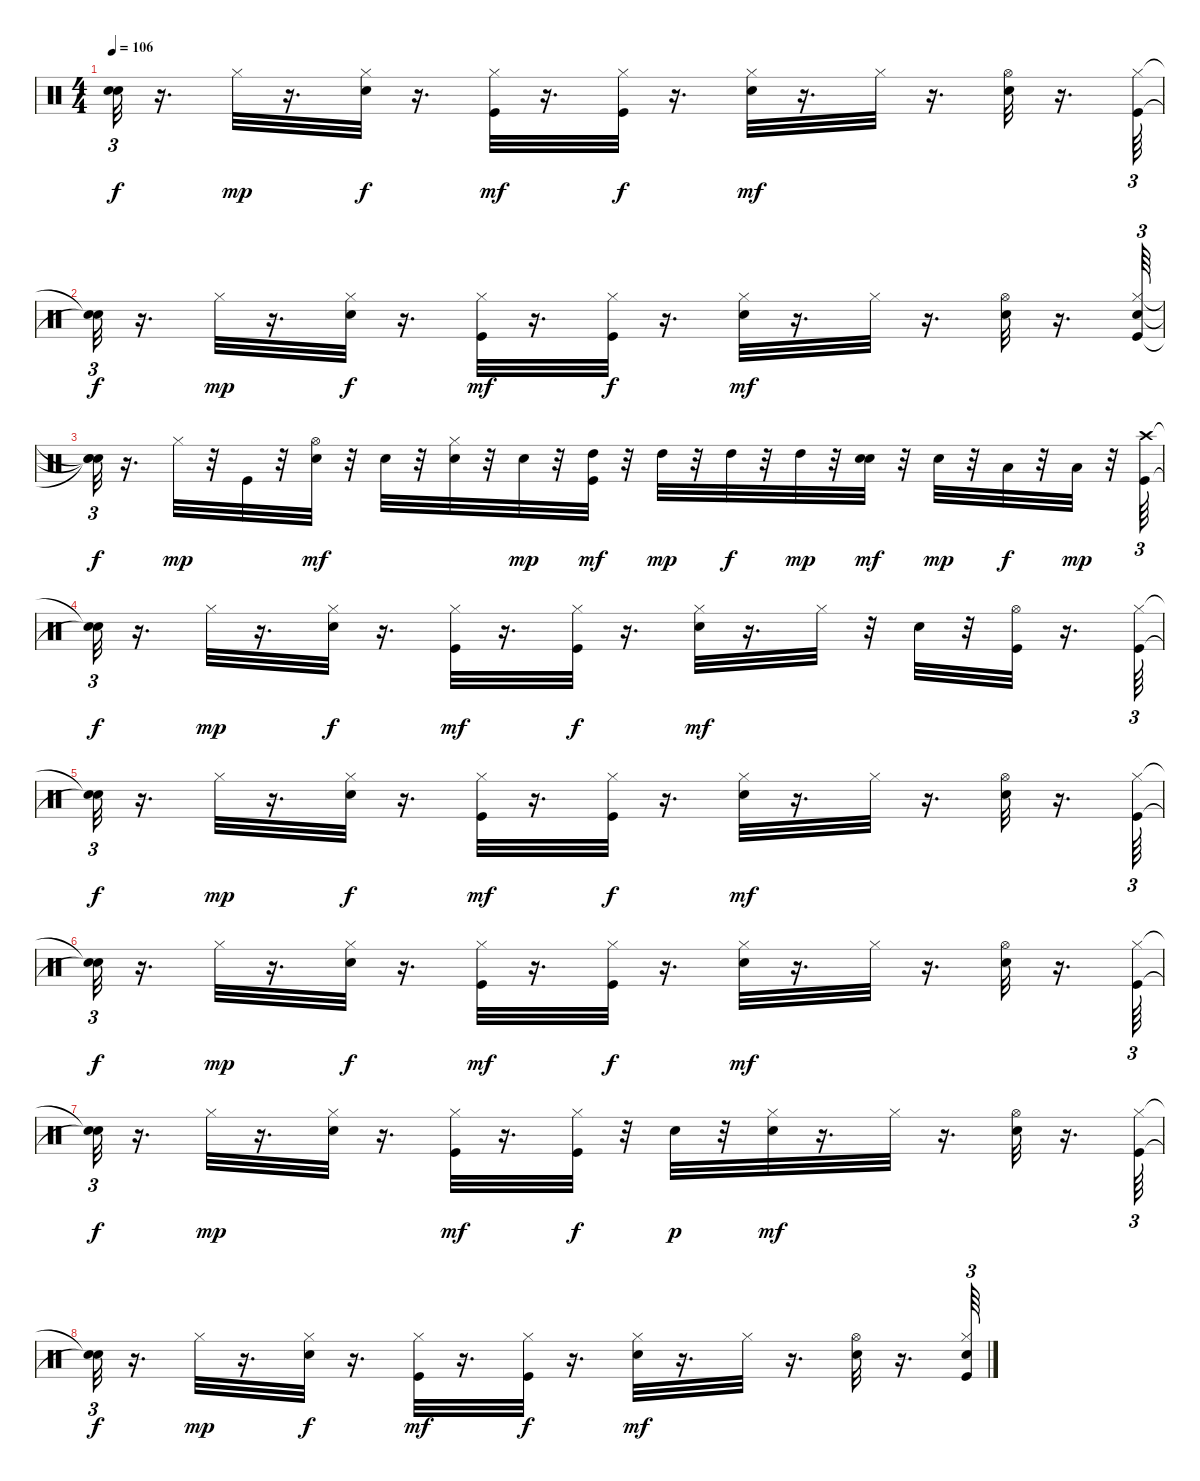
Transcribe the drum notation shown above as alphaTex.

\track "" {instrument percussion}
\staff {score}
\articulation defaults
\ts (4 4)
\tempo 106
\clef neutral
\ks c
("Snare (hit)"{t} "Snare (hit)"{t}).32{tu (3 2) dy f} r.16{d} "Hi-Hat (closed)".32{dy mp} r.16{d} ("Snare (hit) 2" "Hi-Hat (closed)").32{dy f} r.16{d} ("Kick (hit)" "Hi-Hat (closed)").32{dy mf} r.16{d} ("Kick (hit)" "Hi-Hat (closed)").32{dy f} r.16{d} ("Snare (hit) 2" "Hi-Hat (closed)").32{dy mf} r.16{d} "Hi-Hat (closed)".32 r.16{d} ("Snare (hit) 2" "Hi-Hat (open)").32 r.16{d} ("Kick (hit)" "Hi-Hat (closed)").64{tu (3 2)} |
("Snare (hit)"{t} "Snare (hit)"{t}).32{tu (3 2) dy f} r.16{d} "Hi-Hat (closed)".32{dy mp} r.16{d} ("Snare (hit) 2" "Hi-Hat (closed)").32{dy f} r.16{d} ("Kick (hit)" "Hi-Hat (closed)").32{dy mf} r.16{d} ("Kick (hit)" "Hi-Hat (closed)").32{dy f} r.16{d} ("Snare (hit) 2" "Hi-Hat (closed)").32{dy mf} r.16{d} "Hi-Hat (closed)".32 r.16{d} ("Snare (hit) 2" "Hi-Hat (open)").32 r.16{d} ("Kick (hit)" "Snare (hit) 2" "Hi-Hat (closed)").64{tu (3 2)} |
("Snare (hit)"{t} "Snare (hit)"{t} "Snare (hit)"{t}).32{tu (3 2) dy f} r.16{d} "Hi-Hat (closed)".32{dy mp} r.32 "Kick (hit)".32 r.32 ("Snare (hit) 2" "Hi-Hat (open)").32{dy mf} r.32 "Snare (hit) 2".32 r.32 ("Snare (hit) 2" "Hi-Hat (closed)").32 r.32 "Snare (hit) 2".32{dy mp} r.32 ("Kick (hit)" "High Tom (hit)").32{dy mf} r.32 "High Tom (hit)".32{dy mp} r.32 "High Tom (hit)".32{dy f} r.32 "High Tom (hit)".32{dy mp} r.32 ("Snare (hit) 2" "Snare (hit) 2").32{dy mf} r.32 "Snare (hit) 2".32{dy mp} r.32 "Low Tom (hit)".32{dy f} r.32 "Low Tom (hit)".32{dy mp} r.32 ("Kick (hit)" "Crash high (hit)").64{tu (3 2)} |
("Snare (hit)"{t} "Snare (hit)"{t}).32{tu (3 2) dy f} r.16{d} "Hi-Hat (closed)".32{dy mp} r.16{d} ("Snare (hit) 2" "Hi-Hat (closed)").32{dy f} r.16{d} ("Kick (hit)" "Hi-Hat (closed)").32{dy mf} r.16{d} ("Kick (hit)" "Hi-Hat (closed)").32{dy f} r.16{d} ("Snare (hit) 2" "Hi-Hat (closed)").32{dy mf} r.16{d} "Hi-Hat (closed)".32 r.32 "Snare (hit) 2".32 r.32 ("Kick (hit)" "Hi-Hat (open)").32 r.16{d} ("Kick (hit)" "Hi-Hat (closed)").64{tu (3 2)} |
("Snare (hit)"{t} "Snare (hit)"{t}).32{tu (3 2) dy f} r.16{d} "Hi-Hat (closed)".32{dy mp} r.16{d} ("Snare (hit) 2" "Hi-Hat (closed)").32{dy f} r.16{d} ("Kick (hit)" "Hi-Hat (closed)").32{dy mf} r.16{d} ("Kick (hit)" "Hi-Hat (closed)").32{dy f} r.16{d} ("Snare (hit) 2" "Hi-Hat (closed)").32{dy mf} r.16{d} "Hi-Hat (closed)".32 r.16{d} ("Snare (hit) 2" "Hi-Hat (open)").32 r.16{d} ("Kick (hit)" "Hi-Hat (closed)").64{tu (3 2)} |
("Snare (hit)"{t} "Snare (hit)"{t}).32{tu (3 2) dy f} r.16{d} "Hi-Hat (closed)".32{dy mp} r.16{d} ("Snare (hit) 2" "Hi-Hat (closed)").32{dy f} r.16{d} ("Kick (hit)" "Hi-Hat (closed)").32{dy mf} r.16{d} ("Kick (hit)" "Hi-Hat (closed)").32{dy f} r.16{d} ("Snare (hit) 2" "Hi-Hat (closed)").32{dy mf} r.16{d} "Hi-Hat (closed)".32 r.16{d} ("Snare (hit) 2" "Hi-Hat (open)").32 r.16{d} ("Kick (hit)" "Hi-Hat (closed)").64{tu (3 2)} |
("Snare (hit)"{t} "Snare (hit)"{t}).32{tu (3 2) dy f} r.16{d} "Hi-Hat (closed)".32{dy mp} r.16{d} ("Snare (hit) 2" "Hi-Hat (closed)").32 r.16{d} ("Kick (hit)" "Hi-Hat (closed)").32{dy mf} r.16{d} ("Kick (hit)" "Hi-Hat (closed)").32{dy f} r.32 "Snare (hit) 2".32{dy p} r.32 ("Snare (hit) 2" "Hi-Hat (closed)").32{dy mf} r.16{d} "Hi-Hat (closed)".32 r.16{d} ("Snare (hit) 2" "Hi-Hat (open)").32 r.16{d} ("Kick (hit)" "Hi-Hat (closed)").64{tu (3 2)} |
("Snare (hit)"{t} "Snare (hit)"{t}).32{tu (3 2) dy f} r.16{d} "Hi-Hat (closed)".32{dy mp} r.16{d} ("Snare (hit) 2" "Hi-Hat (closed)").32{dy f} r.16{d} ("Kick (hit)" "Hi-Hat (closed)").32{dy mf} r.16{d} ("Kick (hit)" "Hi-Hat (closed)").32{dy f} r.16{d} ("Snare (hit) 2" "Hi-Hat (closed)").32{dy mf} r.16{d} "Hi-Hat (closed)".32 r.16{d} ("Snare (hit) 2" "Hi-Hat (open)").32 r.16{d} ("Kick (hit)" "Snare (hit) 2" "Hi-Hat (closed)").64{tu (3 2)}
